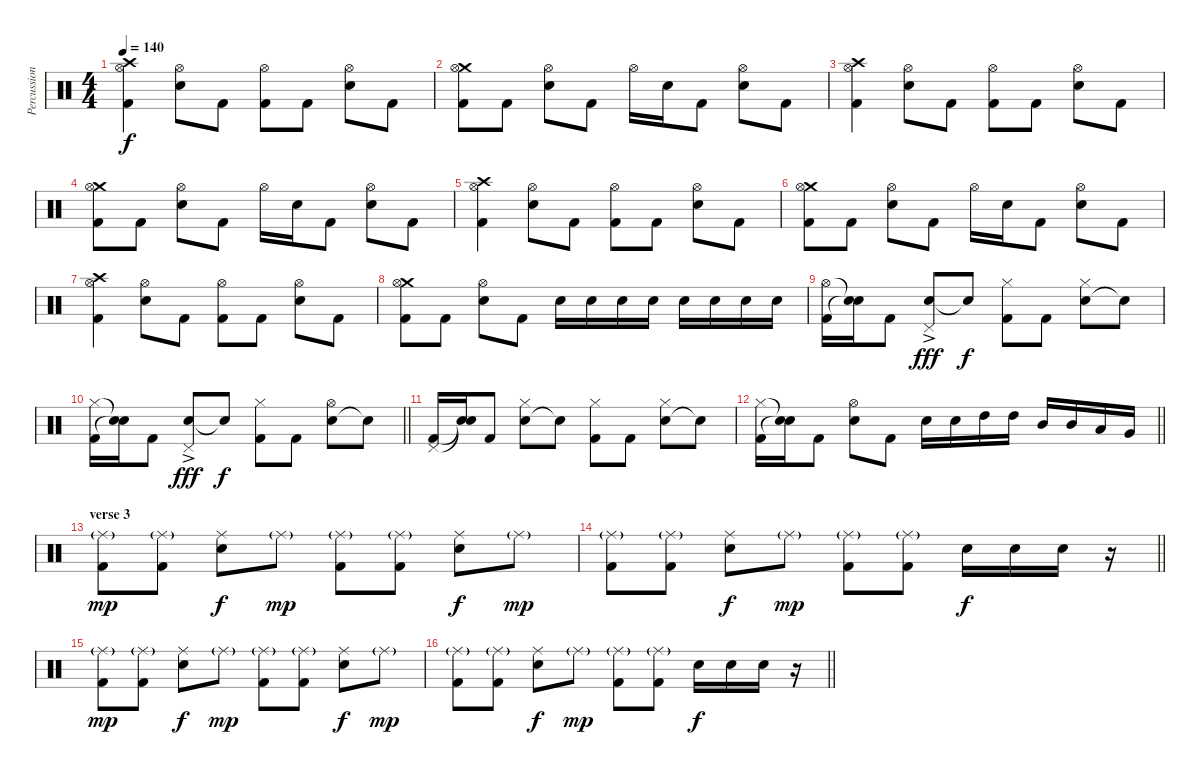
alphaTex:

\track ("Percussion" "Percussion") {instrument percussion}
\staff {score}
\articulation defaults
\ts (4 4)
\tempo 140
\clef neutral
\ks c
("Crash high (hit)" "Kick (hit) 2" "Hi-Hat (open)").4{dy f} ("Electric Snare (hit)" "Hi-Hat (open)").8 "Kick (hit) 2".8 ("Kick (hit) 2" "Hi-Hat (open)").8 "Kick (hit) 2".8 ("Electric Snare (hit)" "Hi-Hat (open)").8 "Kick (hit) 2".8 |
("Crash medium (hit)" "Kick (hit) 2" "Hi-Hat (open)").8 "Kick (hit) 2".8 ("Electric Snare (hit)" "Hi-Hat (open)").8 "Kick (hit) 2".8 "Hi-Hat (open)".16 "Electric Snare (hit)".16 "Kick (hit) 2".8 ("Electric Snare (hit)" "Hi-Hat (open)").8 "Kick (hit) 2".8 |
("Crash high (hit)" "Kick (hit) 2" "Hi-Hat (open)").4 ("Electric Snare (hit)" "Hi-Hat (open)").8 "Kick (hit) 2".8 ("Kick (hit) 2" "Hi-Hat (open)").8 "Kick (hit) 2".8 ("Electric Snare (hit)" "Hi-Hat (open)").8 "Kick (hit) 2".8 |
("Crash medium (hit)" "Kick (hit) 2" "Hi-Hat (open)").8 "Kick (hit) 2".8 ("Electric Snare (hit)" "Hi-Hat (open)").8 "Kick (hit) 2".8 "Hi-Hat (open)".16 "Electric Snare (hit)".16 "Kick (hit) 2".8 ("Electric Snare (hit)" "Hi-Hat (open)").8 "Kick (hit) 2".8 |
("Crash high (hit)" "Kick (hit) 2" "Hi-Hat (open)").4 ("Electric Snare (hit)" "Hi-Hat (open)").8 "Kick (hit) 2".8 ("Kick (hit) 2" "Hi-Hat (open)").8 "Kick (hit) 2".8 ("Electric Snare (hit)" "Hi-Hat (open)").8 "Kick (hit) 2".8 |
("Crash medium (hit)" "Kick (hit) 2" "Hi-Hat (open)").8 "Kick (hit) 2".8 ("Electric Snare (hit)" "Hi-Hat (open)").8 "Kick (hit) 2".8 "Hi-Hat (open)".16 "Electric Snare (hit)".16 "Kick (hit) 2".8 ("Electric Snare (hit)" "Hi-Hat (open)").8 "Kick (hit) 2".8 |
("Crash high (hit)" "Kick (hit) 2" "Hi-Hat (open)").4 ("Electric Snare (hit)" "Hi-Hat (open)").8 "Kick (hit) 2".8 ("Kick (hit) 2" "Hi-Hat (open)").8 "Kick (hit) 2".8 ("Electric Snare (hit)" "Hi-Hat (open)").8 "Kick (hit) 2".8 |
("Crash medium (hit)" "Kick (hit) 2" "Hi-Hat (open)").8 "Kick (hit) 2".8 ("Electric Snare (hit)" "Hi-Hat (open)").8 "Kick (hit) 2".8 "Electric Snare (hit)".16 "Electric Snare (hit)".16 "Electric Snare (hit)".16 "Electric Snare (hit)".16 "Electric Snare (hit)".16 "Electric Snare (hit)".16 "Electric Snare (hit)".16 "Electric Snare (hit)".16 |
("Kick (hit) 2" "Hi-Hat (open)").16 ("Snare (hit)"{t} "Snare (hit)"{t}).16 "Kick (hit) 2".8 ("Electric Snare (hit)" "Pedal Hi-Hat (hit)"{ac}).8{dy fff} "Snare (hit)"{t}.8{dy f} ("Kick (hit) 2" "Hi-Hat (closed)").8 "Kick (hit) 2".8 ("Electric Snare (hit)" "Hi-Hat (closed)").8 "Snare (hit)"{t}.8 |
\barLineRight lightlight
("Kick (hit) 2" "Hi-Hat (closed)").16 ("Snare (hit)"{t} "Snare (hit)"{t}).16 "Kick (hit) 2".8 ("Electric Snare (hit)" "Pedal Hi-Hat (hit)"{ac}).8{dy fff} "Snare (hit)"{t}.8{dy f} ("Kick (hit) 2" "Hi-Hat (closed)").8 "Kick (hit) 2".8 ("Electric Snare (hit)" "Hi-Hat (open)").8 "Snare (hit)"{t}.8 |
("Kick (hit) 2" "Pedal Hi-Hat (hit)").16 ("Snare (hit)"{t} "Snare (hit)"{t}).16 "Kick (hit) 2".8 ("Electric Snare (hit)" "Hi-Hat (closed)").8 "Snare (hit)"{t}.8 ("Kick (hit) 2" "Hi-Hat (closed)").8 "Kick (hit) 2".8 ("Electric Snare (hit)" "Hi-Hat (closed)").8 "Snare (hit)"{t}.8 |
\barLineRight lightlight
("Kick (hit) 2" "Hi-Hat (closed)").16 ("Snare (hit)"{t} "Snare (hit)"{t}).16 "Kick (hit) 2".8 ("Electric Snare (hit)" "Hi-Hat (open)").8 "Kick (hit) 2".8 "Electric Snare (hit)".16 "Electric Snare (hit)".16 "High Tom (hit)".16 "High Tom (hit)".16 "Mid Tom (hit)".16 "Mid Tom (hit)".16 "Low Tom (hit)".16 "Very Low Tom (hit)".16 |
\section ("" "verse 3")
("Kick (hit) 2" "Ride (middle)"{g}).8{dy mp} ("Kick (hit) 2" "Ride (middle)"{g}).8 ("Electric Snare (hit)" "Ride (middle)").8{dy f} "Ride (middle)"{g}.8{dy mp} ("Kick (hit) 2" "Ride (middle)"{g}).8 ("Kick (hit) 2" "Ride (middle)"{g}).8 ("Electric Snare (hit)" "Ride (middle)").8{dy f} "Ride (middle)"{g}.8{dy mp} |
\barLineRight lightlight
("Kick (hit) 2" "Ride (middle)"{g}).8 ("Kick (hit) 2" "Ride (middle)"{g}).8 ("Electric Snare (hit)" "Ride (middle)").8{dy f} "Ride (middle)"{g}.8{dy mp} ("Kick (hit) 2" "Ride (middle)"{g}).8 ("Kick (hit) 2" "Ride (middle)"{g}).8 "Electric Snare (hit)".16{dy f} "Electric Snare (hit)".16 "Electric Snare (hit)".16 r.16 |
("Kick (hit) 2" "Ride (middle)"{g}).8{dy mp} ("Kick (hit) 2" "Ride (middle)"{g}).8 ("Electric Snare (hit)" "Ride (middle)").8{dy f} "Ride (middle)"{g}.8{dy mp} ("Kick (hit) 2" "Ride (middle)"{g}).8 ("Kick (hit) 2" "Ride (middle)"{g}).8 ("Electric Snare (hit)" "Ride (middle)").8{dy f} "Ride (middle)"{g}.8{dy mp} |
\barLineRight lightlight
("Kick (hit) 2" "Ride (middle)"{g}).8 ("Kick (hit) 2" "Ride (middle)"{g}).8 ("Electric Snare (hit)" "Ride (middle)").8{dy f} "Ride (middle)"{g}.8{dy mp} ("Kick (hit) 2" "Ride (middle)"{g}).8 ("Kick (hit) 2" "Ride (middle)"{g}).8 "Electric Snare (hit)".16{dy f} "Electric Snare (hit)".16 "Electric Snare (hit)".16 r.16
